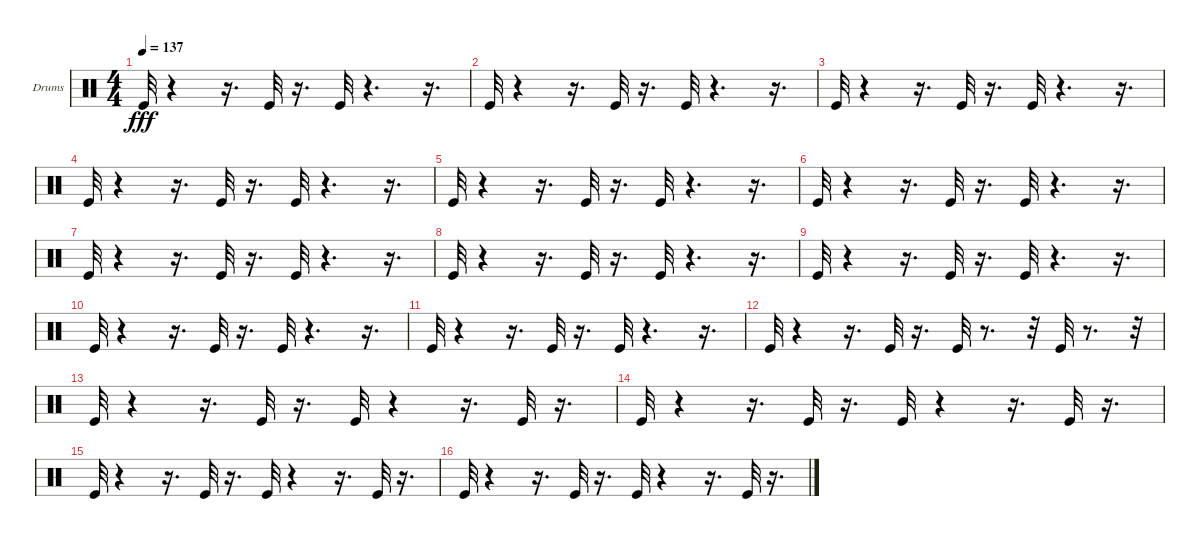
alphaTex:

\bracketExtendMode groupsimilarinstruments
\firstSystemTrackNameOrientation horizontal
\otherSystemsTrackNameOrientation horizontal
\track ("Drumkit" "Drums") {instrument percussion}
\staff {score}
\articulation defaults
\ts (4 4)
\tempo 137
\clef neutral
\ks c "Kick (hit)".32{dy fff}
r.4 r.16{d} "Kick (hit)".32 r.16{d} "Kick (hit)".32 r.4{d} r.16{d} |
"Kick (hit)".32 r.4 r.16{d} "Kick (hit)".32 r.16{d} "Kick (hit)".32 r.4{d} r.16{d} |
"Kick (hit)".32 r.4 r.16{d} "Kick (hit)".32 r.16{d} "Kick (hit)".32 r.4{d} r.16{d} |
"Kick (hit)".32 r.4 r.16{d} "Kick (hit)".32 r.16{d} "Kick (hit)".32 r.4{d} r.16{d} |
"Kick (hit)".32 r.4 r.16{d} "Kick (hit)".32 r.16{d} "Kick (hit)".32 r.4{d} r.16{d} |
"Kick (hit)".32 r.4 r.16{d} "Kick (hit)".32 r.16{d} "Kick (hit)".32 r.4{d} r.16{d} |
"Kick (hit)".32 r.4 r.16{d} "Kick (hit)".32 r.16{d} "Kick (hit)".32 r.4{d} r.16{d} |
"Kick (hit)".32 r.4 r.16{d} "Kick (hit)".32 r.16{d} "Kick (hit)".32 r.4{d} r.16{d} |
"Kick (hit)".32 r.4 r.16{d} "Kick (hit)".32 r.16{d} "Kick (hit)".32 r.4{d} r.16{d} |
"Kick (hit)".32 r.4 r.16{d} "Kick (hit)".32 r.16{d} "Kick (hit)".32 r.4{d} r.16{d} |
"Kick (hit)".32 r.4 r.16{d} "Kick (hit)".32 r.16{d} "Kick (hit)".32 r.4{d} r.16{d} |
"Kick (hit)".32 r.4 r.16{d} "Kick (hit)".32 r.16{d} "Kick (hit)".32 r.8{d} r.32 "Kick (hit)".32 r.8{d} r.32 |
"Kick (hit)".32 r.4 r.16{d} "Kick (hit)".32 r.16{d} "Kick (hit)".32 r.4 r.16{d} "Kick (hit)".32 r.16{d} |
"Kick (hit)".32 r.4 r.16{d} "Kick (hit)".32 r.16{d} "Kick (hit)".32 r.4 r.16{d} "Kick (hit)".32 r.16{d} |
"Kick (hit)".32 r.4 r.16{d} "Kick (hit)".32 r.16{d} "Kick (hit)".32 r.4 r.16{d} "Kick (hit)".32 r.16{d} |
"Kick (hit)".32 r.4 r.16{d} "Kick (hit)".32 r.16{d} "Kick (hit)".32 r.4 r.16{d} "Kick (hit)".32 r.16{d}
